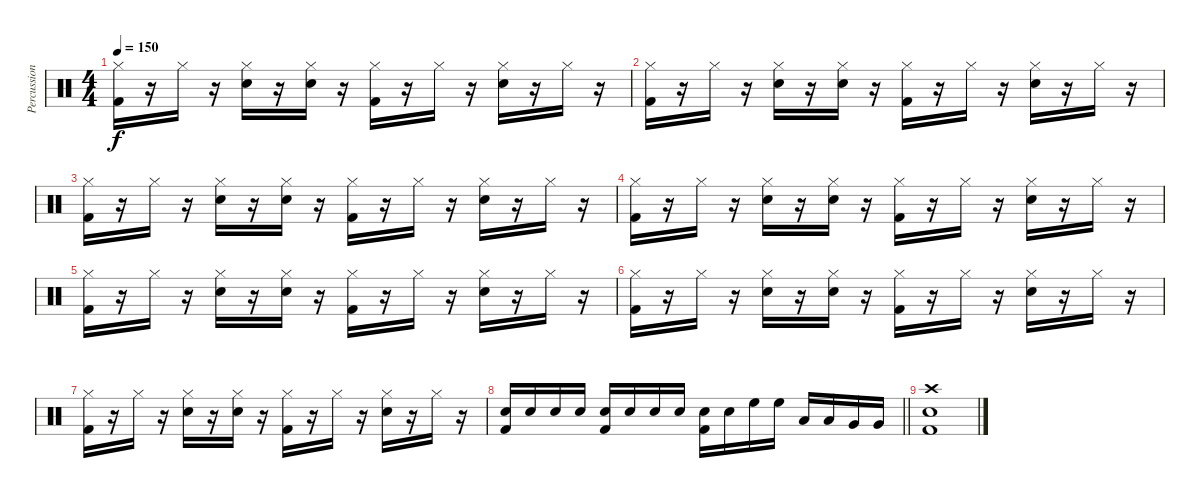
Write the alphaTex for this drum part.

\track ("Percussion" "Percussion") {instrument percussion}
\staff {score}
\articulation defaults
\ts (4 4)
\tempo 150
\clef neutral
\ks c
("Hi-Hat (closed)" "Kick (hit) 2").16{dy f} r.16 "Hi-Hat (closed)".16 r.16 ("Hi-Hat (closed)" "Snare (hit) 2").16 r.16 ("Hi-Hat (closed)" "Snare (hit) 2").16 r.16 ("Hi-Hat (closed)" "Kick (hit) 2").16 r.16 "Hi-Hat (closed)".16 r.16 ("Hi-Hat (closed)" "Snare (hit) 2").16 r.16 "Hi-Hat (closed)".16 r.16 |
("Hi-Hat (closed)" "Kick (hit) 2").16 r.16 "Hi-Hat (closed)".16 r.16 ("Hi-Hat (closed)" "Snare (hit) 2").16 r.16 ("Hi-Hat (closed)" "Snare (hit) 2").16 r.16 ("Hi-Hat (closed)" "Kick (hit) 2").16 r.16 "Hi-Hat (closed)".16 r.16 ("Hi-Hat (closed)" "Snare (hit) 2").16 r.16 "Hi-Hat (closed)".16 r.16 |
("Hi-Hat (closed)" "Kick (hit) 2").16 r.16 "Hi-Hat (closed)".16 r.16 ("Hi-Hat (closed)" "Snare (hit) 2").16 r.16 ("Hi-Hat (closed)" "Snare (hit) 2").16 r.16 ("Hi-Hat (closed)" "Kick (hit) 2").16 r.16 "Hi-Hat (closed)".16 r.16 ("Hi-Hat (closed)" "Snare (hit) 2").16 r.16 "Hi-Hat (closed)".16 r.16 |
("Hi-Hat (closed)" "Kick (hit) 2").16 r.16 "Hi-Hat (closed)".16 r.16 ("Hi-Hat (closed)" "Snare (hit) 2").16 r.16 ("Hi-Hat (closed)" "Snare (hit) 2").16 r.16 ("Hi-Hat (closed)" "Kick (hit) 2").16 r.16 "Hi-Hat (closed)".16 r.16 ("Hi-Hat (closed)" "Snare (hit) 2").16 r.16 "Hi-Hat (closed)".16 r.16 |
("Hi-Hat (closed)" "Kick (hit) 2").16 r.16 "Hi-Hat (closed)".16 r.16 ("Hi-Hat (closed)" "Snare (hit) 2").16 r.16 ("Hi-Hat (closed)" "Snare (hit) 2").16 r.16 ("Hi-Hat (closed)" "Kick (hit) 2").16 r.16 "Hi-Hat (closed)".16 r.16 ("Hi-Hat (closed)" "Snare (hit) 2").16 r.16 "Hi-Hat (closed)".16 r.16 |
("Hi-Hat (closed)" "Kick (hit) 2").16 r.16 "Hi-Hat (closed)".16 r.16 ("Hi-Hat (closed)" "Snare (hit) 2").16 r.16 ("Hi-Hat (closed)" "Snare (hit) 2").16 r.16 ("Hi-Hat (closed)" "Kick (hit) 2").16 r.16 "Hi-Hat (closed)".16 r.16 ("Hi-Hat (closed)" "Snare (hit) 2").16 r.16 "Hi-Hat (closed)".16 r.16 |
("Hi-Hat (closed)" "Kick (hit) 2").16 r.16 "Hi-Hat (closed)".16 r.16 ("Hi-Hat (closed)" "Snare (hit) 2").16 r.16 ("Hi-Hat (closed)" "Snare (hit) 2").16 r.16 ("Hi-Hat (closed)" "Kick (hit) 2").16 r.16 "Hi-Hat (closed)".16 r.16 ("Hi-Hat (closed)" "Snare (hit) 2").16 r.16 "Hi-Hat (closed)".16 r.16 |
\barLineRight lightlight
("Snare (hit) 2" "Kick (hit) 2").16 "Snare (hit) 2".16 "Snare (hit) 2".16 "Snare (hit) 2".16 ("Snare (hit) 2" "Kick (hit) 2").16 "Snare (hit) 2".16 "Snare (hit) 2".16 "Snare (hit) 2".16 ("Snare (hit) 2" "Kick (hit) 2").16 "Snare (hit) 2".16 "High Floor Tom (hit)".16 "High Floor Tom (hit)".16 "Low Tom (hit)".16 "Low Tom (hit)".16 "Very Low Tom (hit)".16 "Very Low Tom (hit)".16 |
("Crash high (hit)" "Electric Snare (hit)" "Kick (hit) 2").1
